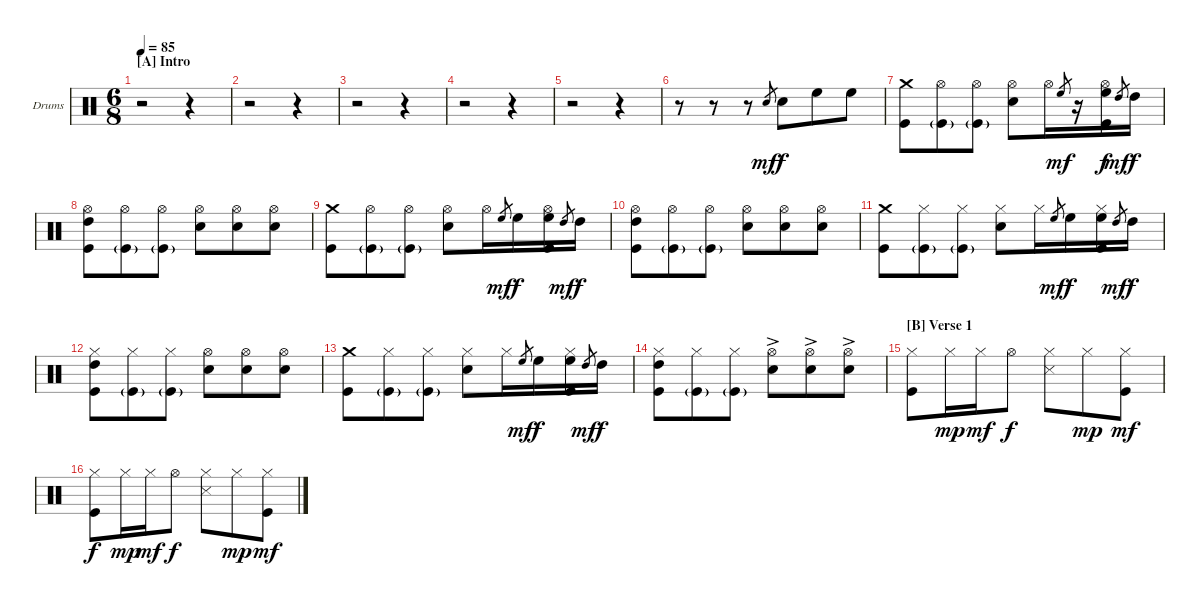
\defaultSystemsLayout 4
\bracketExtendMode groupsimilarinstruments
\firstSystemTrackNameOrientation horizontal
\otherSystemsTrackNameOrientation horizontal
\track ("Drums" "Drums") {instrument percussion}
\staff {score}
\articulation defaults
\ts (6 8)
\section ("A" "Intro")
\tempo 85
\clef neutral
\ks c
r.2{dy mf} r.4 |
r.2 r.4 |
r.2 r.4 |
r.2 r.4 |
r.2 r.4 |
r.8 r.8 r.8 "Snare (hit) 2".8{gr} "Snare (hit) 2".8{dy f} "High Floor Tom (hit)".8 "High Floor Tom (hit)".8 |
("Crash medium (hit)" "Kick (hit)").8 ("Hi-Hat (open)" "Kick (hit)"{g}).8 ("Hi-Hat (open)" "Kick (hit)"{g}).8 ("Hi-Hat (open)" "Snare (hit) 2").8 "Hi-Hat (open)".16 "High Floor Tom (hit)".8{gr dy mf} r.16 ("Hi-Hat (open)" "High Floor Tom (hit)" "Kick (hit)").16{dy f} "High Tom (hit)".8{gr dy mf} "High Tom (hit)".16{dy f} |
("Hi-Hat (open)" "High Tom (hit)" "Kick (hit)").8 ("Hi-Hat (open)" "Kick (hit)"{g}).8 ("Hi-Hat (open)" "Kick (hit)"{g}).8 ("Hi-Hat (open)" "Snare (hit) 2").8 ("Hi-Hat (open)" "Snare (hit) 2").8 ("Hi-Hat (open)" "Snare (hit) 2").8 |
("Crash medium (hit)" "Kick (hit)").8 ("Hi-Hat (open)" "Kick (hit)"{g}).8 ("Hi-Hat (open)" "Kick (hit)"{g}).8 ("Hi-Hat (open)" "Snare (hit) 2").8 "Hi-Hat (open)".16 "High Floor Tom (hit)".8{gr dy mf} "High Floor Tom (hit)".16{dy f} ("Hi-Hat (open)" "High Floor Tom (hit)" "Kick (hit)").16 "High Tom (hit)".8{gr dy mf} "High Tom (hit)".16{dy f} |
("Hi-Hat (open)" "High Tom (hit)" "Kick (hit)").8 ("Hi-Hat (open)" "Kick (hit)"{g}).8 ("Hi-Hat (open)" "Kick (hit)"{g}).8 ("Hi-Hat (open)" "Snare (hit) 2").8 ("Hi-Hat (open)" "Snare (hit) 2").8 ("Hi-Hat (open)" "Snare (hit) 2").8 |
("Crash medium (hit)" "Kick (hit)").8 ("Hi-Hat (closed)" "Kick (hit)"{g}).8 ("Hi-Hat (closed)" "Kick (hit)"{g}).8 ("Hi-Hat (closed)" "Snare (hit) 2").8 "Hi-Hat (closed)".16 "High Floor Tom (hit)".8{gr dy mf} "High Floor Tom (hit)".16{dy f} ("Hi-Hat (closed)" "High Floor Tom (hit)" "Kick (hit)").16 "High Tom (hit)".8{gr dy mf} "High Tom (hit)".16{dy f} |
("Hi-Hat (closed)" "High Tom (hit)" "Kick (hit)").8 ("Hi-Hat (closed)" "Kick (hit)"{g}).8 ("Hi-Hat (closed)" "Kick (hit)"{g}).8 ("Hi-Hat (open)" "Snare (hit) 2").8 ("Hi-Hat (open)" "Snare (hit) 2").8 ("Hi-Hat (open)" "Snare (hit) 2").8 |
("Crash medium (hit)" "Kick (hit)").8 ("Hi-Hat (closed)" "Kick (hit)"{g}).8 ("Hi-Hat (closed)" "Kick (hit)"{g}).8 ("Hi-Hat (closed)" "Snare (hit) 2").8 "Hi-Hat (closed)".16 "High Floor Tom (hit)".8{gr dy mf} "High Floor Tom (hit)".16{dy f} ("Hi-Hat (closed)" "High Floor Tom (hit)" "Kick (hit)").16 "High Tom (hit)".8{gr dy mf} "High Tom (hit)".16{dy f} |
("Hi-Hat (closed)" "High Tom (hit)" "Kick (hit)").8 ("Hi-Hat (closed)" "Kick (hit)"{g}).8 ("Hi-Hat (closed)" "Kick (hit)"{g}).8 ("Hi-Hat (open)"{ac} "Snare (hit) 2").8 ("Hi-Hat (open)"{ac} "Snare (hit) 2").8 ("Hi-Hat (open)"{ac} "Snare (hit) 2").8 |
\section ("B" "Verse 1")
("Hi-Hat (closed)" "Kick (hit)").8 "Hi-Hat (closed)".16{dy mp} "Hi-Hat (closed)".16{dy mf} "Hi-Hat (open)".8{dy f} ("Hi-Hat (closed)" "Snare (side stick) 3").8 "Hi-Hat (closed)".8{dy mp} ("Hi-Hat (closed)" "Kick (hit)").8{dy mf} |
("Hi-Hat (closed)" "Kick (hit)").8{dy f} "Hi-Hat (closed)".16{dy mp} "Hi-Hat (closed)".16{dy mf} "Hi-Hat (open)".8{dy f} ("Hi-Hat (closed)" "Snare (side stick) 3").8 "Hi-Hat (closed)".8{dy mp} ("Hi-Hat (closed)" "Kick (hit)").8{dy mf}
